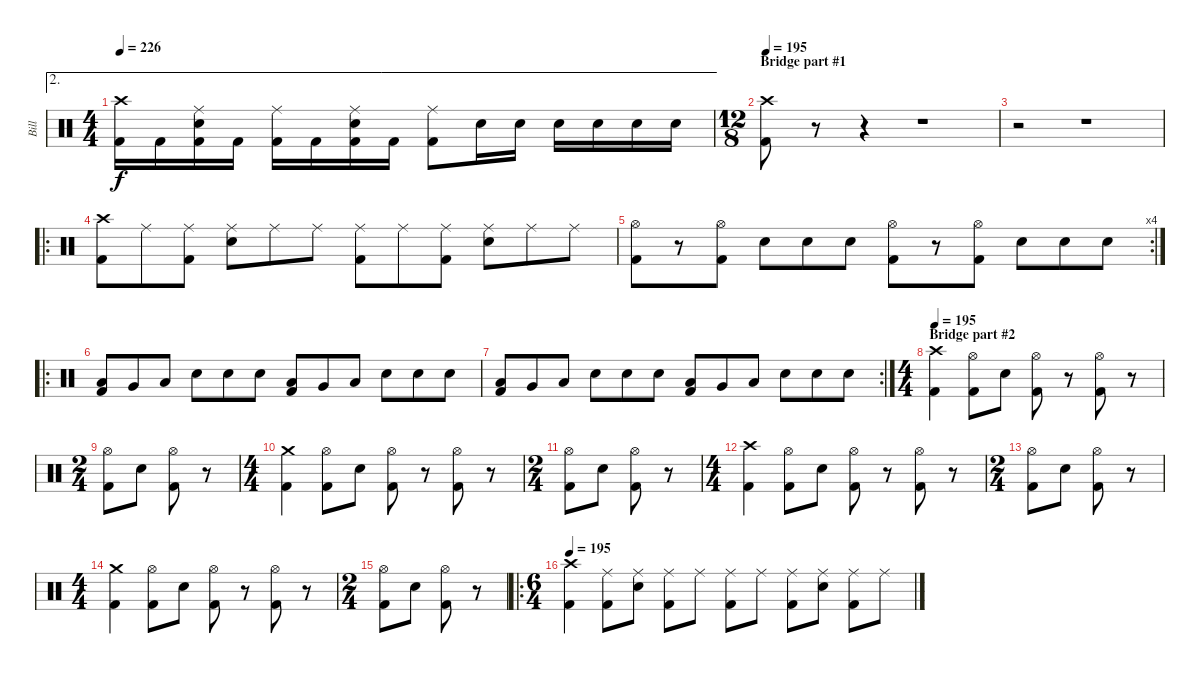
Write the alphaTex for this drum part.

\track ("Bill" "Bill") {instrument percussion}
\staff {score}
\articulation defaults
\ae 2
\ts (4 4)
\tempo 226
\clef neutral
\ks c
("Crash high (hit)" "Kick (hit) 2").16{dy f} "Kick (hit) 2".16 ("Ride (middle)" "Electric Snare (hit)" "Kick (hit) 2").16 "Kick (hit) 2".16 ("Ride (middle)" "Kick (hit) 2").16 "Kick (hit) 2".16 ("Ride (middle)" "Electric Snare (hit)" "Kick (hit) 2").16 "Kick (hit) 2".16 ("Ride (middle)" "Kick (hit) 2").8 "Electric Snare (hit)".16 "Electric Snare (hit)".16 "Electric Snare (hit)".16 "Electric Snare (hit)".16 "Electric Snare (hit)".16 "Electric Snare (hit)".16 |
\ts (12 8)
\section ("" "Bridge part #1")
\tempo 195
("Crash high (hit)" "Kick (hit) 2").8 r.8 r.4 r.1 |
r.2 r.1 |
\ro
("Crash high (hit)" "Kick (hit) 2").8 "Ride (middle)".8 ("Ride (middle)" "Kick (hit) 2").8 ("Ride (middle)" "Electric Snare (hit)").8 "Ride (middle)".8 "Ride (middle)".8 ("Ride (middle)" "Kick (hit) 2").8 "Ride (middle)".8 ("Ride (middle)" "Kick (hit) 2").8 ("Ride (middle)" "Electric Snare (hit)").8 "Ride (middle)".8 "Ride (middle)".8 |
\rc 4
("Hi-Hat (open)" "Kick (hit) 2").8 r.8 ("Hi-Hat (open)" "Kick (hit) 2").8 "Electric Snare (hit)".8 "Electric Snare (hit)".8 "Electric Snare (hit)".8 ("Hi-Hat (open)" "Kick (hit) 2").8 r.8 ("Hi-Hat (open)" "Kick (hit) 2").8 "Electric Snare (hit)".8 "Electric Snare (hit)".8 "Electric Snare (hit)".8 |
\ro
("Low Tom (hit)" "Kick (hit) 2").8 "Very Low Tom (hit)".8 "Low Floor Tom (hit)".8 "Electric Snare (hit)".8 "Electric Snare (hit)".8 "Electric Snare (hit)".8 ("Low Tom (hit)" "Kick (hit) 2").8 "Very Low Tom (hit)".8 "Low Floor Tom (hit)".8 "Electric Snare (hit)".8 "Electric Snare (hit)".8 "Electric Snare (hit)".8 |
\rc 2
("Low Tom (hit)" "Kick (hit) 2").8 "Very Low Tom (hit)".8 "Low Floor Tom (hit)".8 "Electric Snare (hit)".8 "Electric Snare (hit)".8 "Electric Snare (hit)".8 ("Low Tom (hit)" "Kick (hit) 2").8 "Very Low Tom (hit)".8 "Low Floor Tom (hit)".8 "Electric Snare (hit)".8 "Electric Snare (hit)".8 "Electric Snare (hit)".8 |
\ts (4 4)
\section ("" "Bridge part #2")
\tempo 195
("Crash high (hit)" "Kick (hit) 2").4 ("Hi-Hat (open)" "Kick (hit) 2").8 "Electric Snare (hit)".8 ("Hi-Hat (open)" "Kick (hit) 2").8 r.8 ("Hi-Hat (open)" "Kick (hit) 2").8 r.8 |
\ts (2 4)
("Hi-Hat (open)" "Kick (hit) 2").8 "Electric Snare (hit)".8 ("Hi-Hat (open)" "Kick (hit) 2").8 r.8 |
\ts (4 4)
("Crash medium (hit)" "Kick (hit) 2").4 ("Hi-Hat (open)" "Kick (hit) 2").8 "Electric Snare (hit)".8 ("Hi-Hat (open)" "Kick (hit) 2").8 r.8 ("Hi-Hat (open)" "Kick (hit) 2").8 r.8 |
\ts (2 4)
("Hi-Hat (open)" "Kick (hit) 2").8 "Electric Snare (hit)".8 ("Hi-Hat (open)" "Kick (hit) 2").8 r.8 |
\ts (4 4)
("Crash high (hit)" "Kick (hit) 2").4 ("Hi-Hat (open)" "Kick (hit) 2").8 "Electric Snare (hit)".8 ("Hi-Hat (open)" "Kick (hit) 2").8 r.8 ("Hi-Hat (open)" "Kick (hit) 2").8 r.8 |
\ts (2 4)
("Hi-Hat (open)" "Kick (hit) 2").8 "Electric Snare (hit)".8 ("Hi-Hat (open)" "Kick (hit) 2").8 r.8 |
\ts (4 4)
("Crash medium (hit)" "Kick (hit) 2").4 ("Hi-Hat (open)" "Kick (hit) 2").8 "Electric Snare (hit)".8 ("Hi-Hat (open)" "Kick (hit) 2").8 r.8 ("Hi-Hat (open)" "Kick (hit) 2").8 r.8 |
\ts (2 4)
("Hi-Hat (open)" "Kick (hit) 2").8 "Electric Snare (hit)".8 ("Hi-Hat (open)" "Kick (hit) 2").8 r.8 |
\ro
\ts (6 4)
\tempo 195
("Crash high (hit)" "Kick (hit) 2").4 ("Ride (middle)" "Kick (hit) 2").8 ("Ride (middle)" "Electric Snare (hit)").8 ("Ride (middle)" "Kick (hit) 2").8 "Ride (middle)".8 ("Ride (middle)" "Kick (hit) 2").8 "Ride (middle)".8 ("Ride (middle)" "Kick (hit) 2").8 ("Ride (middle)" "Electric Snare (hit)").8 ("Ride (middle)" "Kick (hit) 2").8 "Ride (middle)".8
